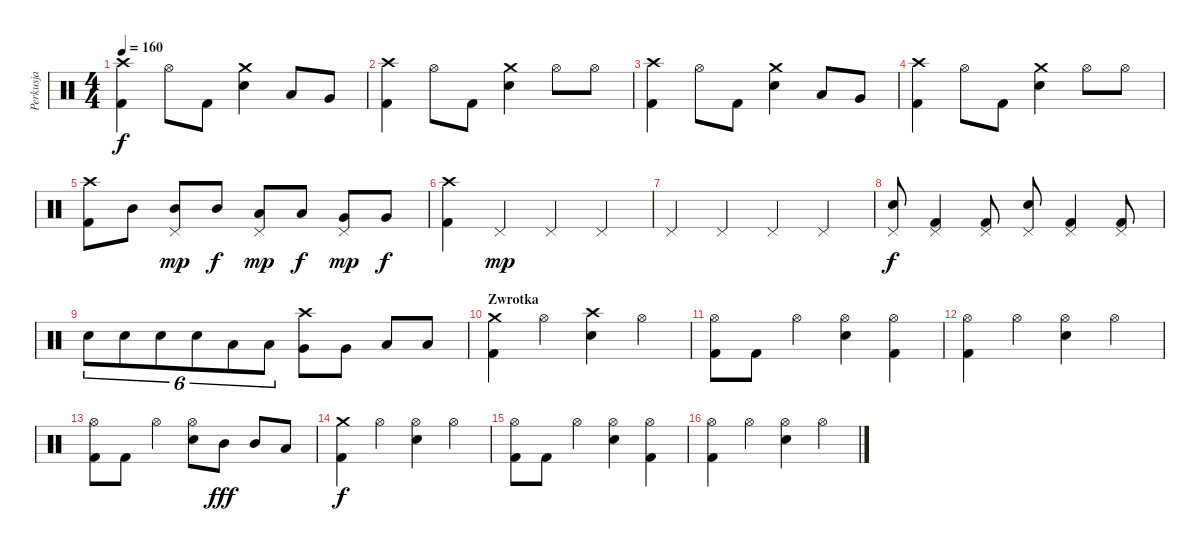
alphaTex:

\track ("Perkusja" "Perkusja") {instrument percussion}
\staff {score}
\articulation defaults
\ts (4 4)
\tempo 160
\clef neutral
\ks c
("Crash high (hit)" "Kick (hit) 2").4{dy f} "Hi-Hat (open)".8 "Kick (hit) 2".8 ("Crash medium (hit)" "Snare (hit) 2").4 "Low Tom (hit)".8 "Very Low Tom (hit)".8 |
("Crash high (hit)" "Kick (hit) 2").4 "Hi-Hat (open)".8 "Kick (hit) 2".8 ("Crash medium (hit)" "Snare (hit) 2").4 "Hi-Hat (open)".8 "Hi-Hat (open)".8 |
("Crash high (hit)" "Kick (hit) 2").4 "Hi-Hat (open)".8 "Kick (hit) 2".8 ("Crash medium (hit)" "Snare (hit) 2").4 "Low Tom (hit)".8 "Very Low Tom (hit)".8 |
("Crash high (hit)" "Kick (hit) 2").4 "Hi-Hat (open)".8 "Kick (hit) 2".8 ("Crash medium (hit)" "Snare (hit) 2").4 "Hi-Hat (open)".8 "Hi-Hat (open)".8 |
("Crash high (hit)" "Kick (hit) 2").8 "Mid Tom (hit)".8 ("Pedal Hi-Hat (hit)" "Mid Tom (hit)").8{dy mp} "Mid Tom (hit)".8{dy f} ("Pedal Hi-Hat (hit)" "Low Tom (hit)").8{dy mp} "Low Tom (hit)".8{dy f} ("Pedal Hi-Hat (hit)" "Very Low Tom (hit)").8{dy mp} "Very Low Tom (hit)".8{dy f} |
("Crash high (hit)" "Kick (hit) 2").4 "Pedal Hi-Hat (hit)".4{dy mp} "Pedal Hi-Hat (hit)".4 "Pedal Hi-Hat (hit)".4 |
"Pedal Hi-Hat (hit)".4 "Pedal Hi-Hat (hit)".4 "Pedal Hi-Hat (hit)".4 "Pedal Hi-Hat (hit)".4 |
("Pedal Hi-Hat (hit)" "Snare (hit) 2").8{dy f} ("Pedal Hi-Hat (hit)" "Kick (hit) 2").4 ("Pedal Hi-Hat (hit)" "Kick (hit) 2").8 ("Pedal Hi-Hat (hit)" "Snare (hit) 2").8 ("Pedal Hi-Hat (hit)" "Kick (hit) 2").4 ("Pedal Hi-Hat (hit)" "Kick (hit) 2").8 |
"Snare (hit) 2".8{tu (6 4)} "Snare (hit) 2".8{tu (6 4)} "Snare (hit) 2".8{tu (6 4)} "Snare (hit) 2".8{tu (6 4)} "Low Tom (hit)".8{tu (6 4)} "Low Tom (hit)".8{tu (6 4)} ("Crash high (hit)" "Very Low Tom (hit)").8 "Very Low Tom (hit)".8 "Low Floor Tom (hit)".8 "Low Floor Tom (hit)".8 |
\section ("" "Zwrotka")
("Crash medium (hit)" "Kick (hit) 2").4 "Hi-Hat (open)".4 ("Crash high (hit)" "Snare (hit) 2").4 "Hi-Hat (open)".4 |
("Hi-Hat (open)" "Kick (hit) 2").8 "Kick (hit) 2".8 "Hi-Hat (open)".4 ("Hi-Hat (open)" "Snare (hit) 2").4 ("Hi-Hat (open)" "Kick (hit) 2").4 |
("Hi-Hat (open)" "Kick (hit) 2").4 "Hi-Hat (open)".4 ("Hi-Hat (open)" "Snare (hit) 2").4 "Hi-Hat (open)".4 |
("Hi-Hat (open)" "Kick (hit) 2").8 "Kick (hit) 2".8 "Hi-Hat (open)".4 ("Hi-Hat (open)" "Snare (hit) 2").8 "Mid Tom (hit)".8{dy fff} "Mid Tom (hit)".8 "Low Tom (hit)".8 |
("Crash medium (hit)" "Kick (hit) 2").4{dy f} "Hi-Hat (open)".4 ("Hi-Hat (open)" "Snare (hit) 2").4 "Hi-Hat (open)".4 |
("Hi-Hat (open)" "Kick (hit) 2").8 "Kick (hit) 2".8 "Hi-Hat (open)".4 ("Hi-Hat (open)" "Snare (hit) 2").4 ("Hi-Hat (open)" "Kick (hit) 2").4 |
("Hi-Hat (open)" "Kick (hit) 2").4 "Hi-Hat (open)".4 ("Hi-Hat (open)" "Snare (hit) 2").4 "Hi-Hat (open)".4
